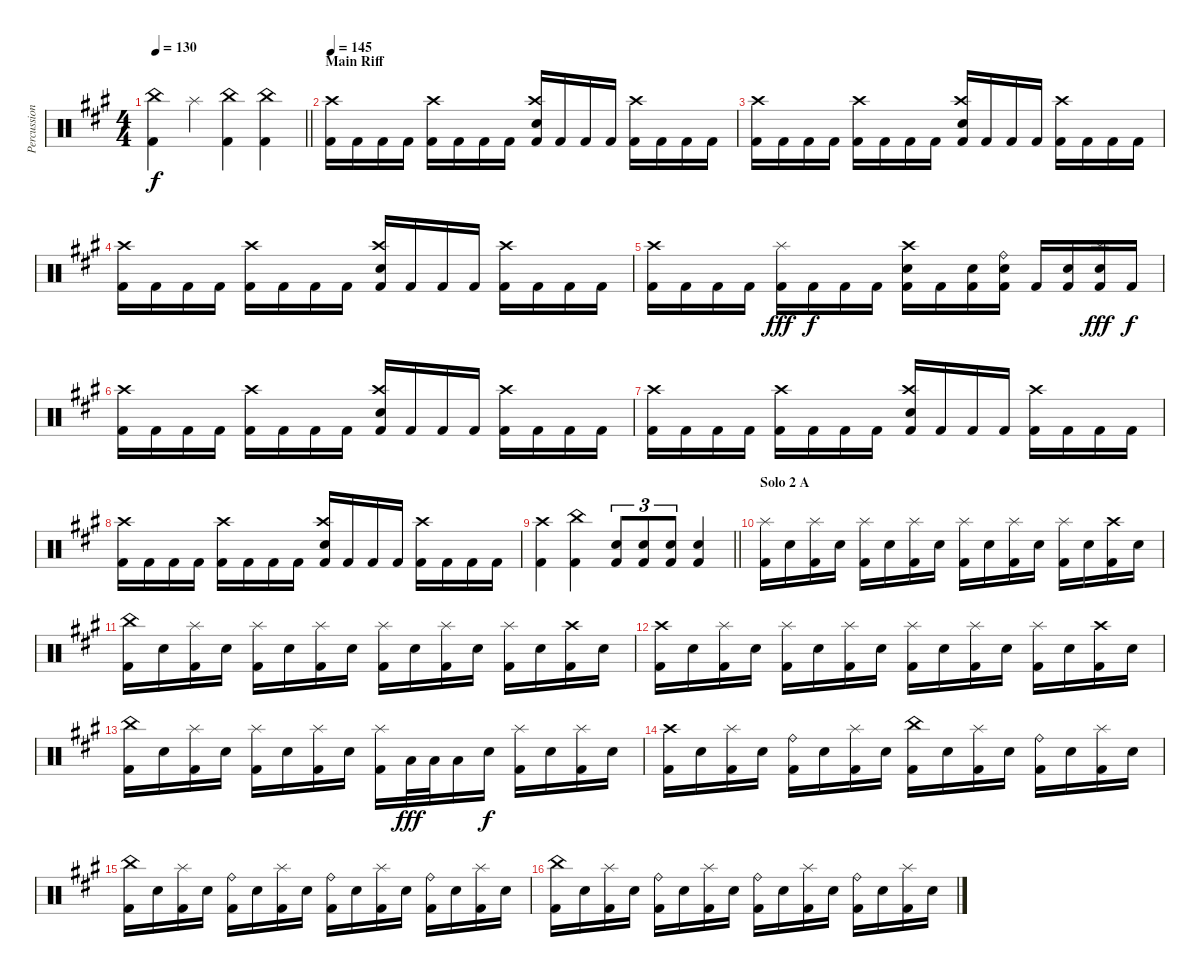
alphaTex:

\track ("Percussion" "Percussion") {instrument percussion bank 127}
\staff {score}
\articulation defaults
\ts (4 4)
\tempo 130
\clef neutral
\barLineRight lightlight
\ks a
("China (hit)" "Kick (hit) 2").4{dy f} "Splash (hit)".4 ("China (hit)" "Kick (hit) 2").4 ("China (hit)" "Kick (hit) 2").4 |
\section ("" "Main Riff")
\tempo 145
("Crash high (hit)" "Kick (hit) 2").16 "Kick (hit) 2".16 "Kick (hit) 2".16 "Kick (hit) 2".16 ("Crash high (hit)" "Kick (hit) 2").16 "Kick (hit) 2".16 "Kick (hit) 2".16 "Kick (hit) 2".16 ("Crash high (hit)" "Electric Snare (hit)" "Kick (hit) 2").16 "Kick (hit) 2".16 "Kick (hit) 2".16 "Kick (hit) 2".16 ("Crash high (hit)" "Kick (hit) 2").16 "Kick (hit) 2".16 "Kick (hit) 2".16 "Kick (hit) 2".16 |
("Crash high (hit)" "Kick (hit) 2").16 "Kick (hit) 2".16 "Kick (hit) 2".16 "Kick (hit) 2".16 ("Crash high (hit)" "Kick (hit) 2").16 "Kick (hit) 2".16 "Kick (hit) 2".16 "Kick (hit) 2".16 ("Crash high (hit)" "Electric Snare (hit)" "Kick (hit) 2").16 "Kick (hit) 2".16 "Kick (hit) 2".16 "Kick (hit) 2".16 ("Crash high (hit)" "Kick (hit) 2").16 "Kick (hit) 2".16 "Kick (hit) 2".16 "Kick (hit) 2".16 |
("Crash high (hit)" "Kick (hit) 2").16 "Kick (hit) 2".16 "Kick (hit) 2".16 "Kick (hit) 2".16 ("Crash high (hit)" "Kick (hit) 2").16 "Kick (hit) 2".16 "Kick (hit) 2".16 "Kick (hit) 2".16 ("Crash high (hit)" "Electric Snare (hit)" "Kick (hit) 2").16 "Kick (hit) 2".16 "Kick (hit) 2".16 "Kick (hit) 2".16 ("Crash high (hit)" "Kick (hit) 2").16 "Kick (hit) 2".16 "Kick (hit) 2".16 "Kick (hit) 2".16 |
("Crash high (hit)" "Kick (hit) 2").16 "Kick (hit) 2".16 "Kick (hit) 2".16 "Kick (hit) 2".16 ("Splash (hit)" "Kick (hit) 2").16{dy fff} "Kick (hit) 2".16{dy f} "Kick (hit) 2".16 "Kick (hit) 2".16 ("Crash high (hit)" "Electric Snare (hit)" "Kick (hit) 2").16 "Kick (hit) 2".16 ("Electric Snare (hit)" "Kick (hit) 2").16 ("Ride (bell)" "Electric Snare (hit)" "Kick (hit) 2").16 "Kick (hit) 2".16 ("Electric Snare (hit)" "Kick (hit) 2").16 ("Splash (hit)" "Electric Snare (hit)" "Kick (hit) 2").16{dy fff} "Kick (hit) 2".16{dy f} |
("Crash high (hit)" "Kick (hit) 2").16 "Kick (hit) 2".16 "Kick (hit) 2".16 "Kick (hit) 2".16 ("Crash high (hit)" "Kick (hit) 2").16 "Kick (hit) 2".16 "Kick (hit) 2".16 "Kick (hit) 2".16 ("Crash high (hit)" "Electric Snare (hit)" "Kick (hit) 2").16 "Kick (hit) 2".16 "Kick (hit) 2".16 "Kick (hit) 2".16 ("Crash high (hit)" "Kick (hit) 2").16 "Kick (hit) 2".16 "Kick (hit) 2".16 "Kick (hit) 2".16 |
("Crash high (hit)" "Kick (hit) 2").16 "Kick (hit) 2".16 "Kick (hit) 2".16 "Kick (hit) 2".16 ("Crash high (hit)" "Kick (hit) 2").16 "Kick (hit) 2".16 "Kick (hit) 2".16 "Kick (hit) 2".16 ("Crash high (hit)" "Electric Snare (hit)" "Kick (hit) 2").16 "Kick (hit) 2".16 "Kick (hit) 2".16 "Kick (hit) 2".16 ("Crash high (hit)" "Kick (hit) 2").16 "Kick (hit) 2".16 "Kick (hit) 2".16 "Kick (hit) 2".16 |
("Crash high (hit)" "Kick (hit) 2").16 "Kick (hit) 2".16 "Kick (hit) 2".16 "Kick (hit) 2".16 ("Crash high (hit)" "Kick (hit) 2").16 "Kick (hit) 2".16 "Kick (hit) 2".16 "Kick (hit) 2".16 ("Crash high (hit)" "Electric Snare (hit)" "Kick (hit) 2").16 "Kick (hit) 2".16 "Kick (hit) 2".16 "Kick (hit) 2".16 ("Crash high (hit)" "Kick (hit) 2").16 "Kick (hit) 2".16 "Kick (hit) 2".16 "Kick (hit) 2".16 |
\barLineRight lightlight
("Crash high (hit)" "Kick (hit) 2").4 ("China (hit)" "Kick (hit) 2").4 ("Electric Snare (hit)" "Kick (hit) 2").8{tu (3 2)} ("Electric Snare (hit)" "Kick (hit) 2").8{tu (3 2)} ("Electric Snare (hit)" "Kick (hit) 2").8{tu (3 2)} ("Electric Snare (hit)" "Kick (hit) 2").4 |
\section ("" "Solo 2 A")
("Splash (hit)" "Kick (hit) 2").16 "Electric Snare (hit)".16 ("Splash (hit)" "Kick (hit) 2").16 "Electric Snare (hit)".16 ("Splash (hit)" "Kick (hit) 2").16 "Electric Snare (hit)".16 ("Splash (hit)" "Kick (hit) 2").16 "Electric Snare (hit)".16 ("Splash (hit)" "Kick (hit) 2").16 "Electric Snare (hit)".16 ("Splash (hit)" "Kick (hit) 2").16 "Electric Snare (hit)".16 ("Splash (hit)" "Kick (hit) 2").16 "Electric Snare (hit)".16 ("Crash high (hit)" "Kick (hit) 2").16 "Electric Snare (hit)".16 |
("China (hit)" "Kick (hit) 2").16 "Electric Snare (hit)".16 ("Splash (hit)" "Kick (hit) 2").16 "Electric Snare (hit)".16 ("Splash (hit)" "Kick (hit) 2").16 "Electric Snare (hit)".16 ("Splash (hit)" "Kick (hit) 2").16 "Electric Snare (hit)".16 ("Splash (hit)" "Kick (hit) 2").16 "Electric Snare (hit)".16 ("Splash (hit)" "Kick (hit) 2").16 "Electric Snare (hit)".16 ("Splash (hit)" "Kick (hit) 2").16 "Electric Snare (hit)".16 ("Crash high (hit)" "Kick (hit) 2").16 "Electric Snare (hit)".16 |
("Crash high (hit)" "Kick (hit) 2").16 "Electric Snare (hit)".16 ("Splash (hit)" "Kick (hit) 2").16 "Electric Snare (hit)".16 ("Splash (hit)" "Kick (hit) 2").16 "Electric Snare (hit)".16 ("Splash (hit)" "Kick (hit) 2").16 "Electric Snare (hit)".16 ("Splash (hit)" "Kick (hit) 2").16 "Electric Snare (hit)".16 ("Splash (hit)" "Kick (hit) 2").16 "Electric Snare (hit)".16 ("Splash (hit)" "Kick (hit) 2").16 "Electric Snare (hit)".16 ("Crash high (hit)" "Kick (hit) 2").16 "Electric Snare (hit)".16 |
("China (hit)" "Kick (hit) 2").16 "Electric Snare (hit)".16 ("Splash (hit)" "Kick (hit) 2").16 "Electric Snare (hit)".16 ("Splash (hit)" "Kick (hit) 2").16 "Electric Snare (hit)".16 ("Splash (hit)" "Kick (hit) 2").16 "Electric Snare (hit)".16 ("Splash (hit)" "Kick (hit) 2").16 "Low Tom (hit)".32{dy fff} "Low Tom (hit)".32 "Low Tom (hit)".16 "Electric Snare (hit)".16{dy f} ("Splash (hit)" "Kick (hit) 2").16 "Electric Snare (hit)".16 ("Splash (hit)" "Kick (hit) 2").16 "Electric Snare (hit)".16 |
("Crash high (hit)" "Kick (hit) 2").16 "Electric Snare (hit)".16 ("Splash (hit)" "Kick (hit) 2").16 "Electric Snare (hit)".16 ("Ride (bell)" "Kick (hit) 2").16 "Electric Snare (hit)".16 ("Splash (hit)" "Kick (hit) 2").16 "Electric Snare (hit)".16 ("China (hit)" "Kick (hit) 2").16 "Electric Snare (hit)".16 ("Splash (hit)" "Kick (hit) 2").16 "Electric Snare (hit)".16 ("Ride (bell)" "Kick (hit) 2").16 "Electric Snare (hit)".16 ("Splash (hit)" "Kick (hit) 2").16 "Electric Snare (hit)".16 |
("China (hit)" "Kick (hit) 2").16 "Electric Snare (hit)".16 ("Splash (hit)" "Kick (hit) 2").16 "Electric Snare (hit)".16 ("Ride (bell)" "Kick (hit) 2").16 "Electric Snare (hit)".16 ("Splash (hit)" "Kick (hit) 2").16 "Electric Snare (hit)".16 ("Ride (bell)" "Kick (hit) 2").16 "Electric Snare (hit)".16 ("Splash (hit)" "Kick (hit) 2").16 "Electric Snare (hit)".16 ("Ride (bell)" "Kick (hit) 2").16 "Electric Snare (hit)".16 ("Splash (hit)" "Kick (hit) 2").16 "Electric Snare (hit)".16 |
("China (hit)" "Kick (hit) 2").16 "Electric Snare (hit)".16 ("Splash (hit)" "Kick (hit) 2").16 "Electric Snare (hit)".16 ("Ride (bell)" "Kick (hit) 2").16 "Electric Snare (hit)".16 ("Splash (hit)" "Kick (hit) 2").16 "Electric Snare (hit)".16 ("Ride (bell)" "Kick (hit) 2").16 "Electric Snare (hit)".16 ("Splash (hit)" "Kick (hit) 2").16 "Electric Snare (hit)".16 ("Ride (bell)" "Kick (hit) 2").16 "Electric Snare (hit)".16 ("Splash (hit)" "Kick (hit) 2").16 "Electric Snare (hit)".16
